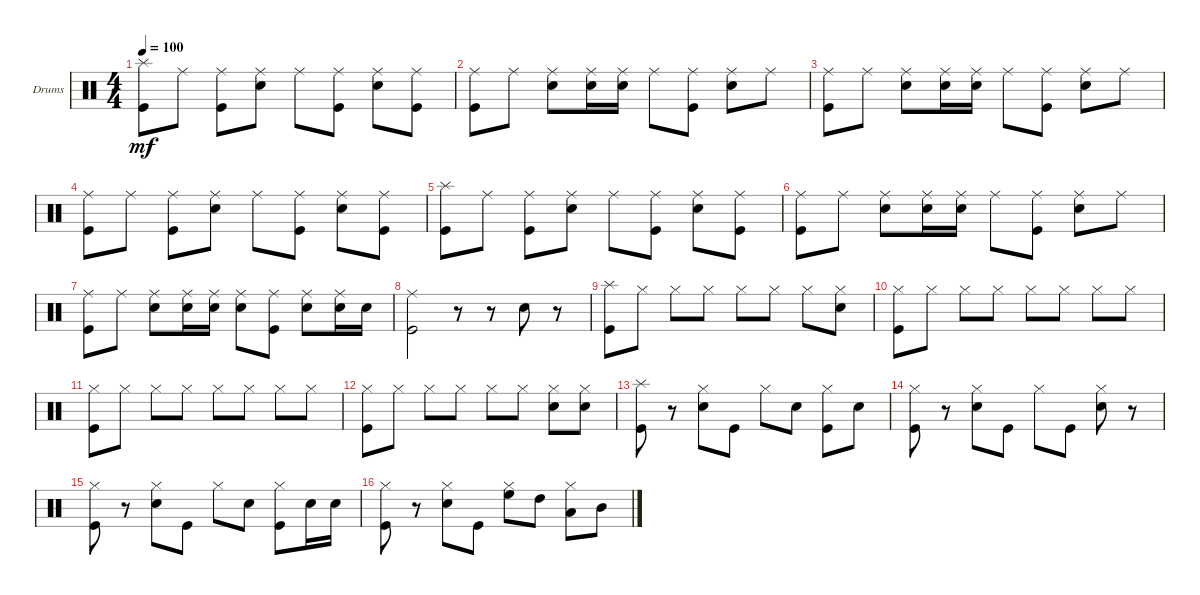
\defaultSystemsLayout 4
\bracketExtendMode groupsimilarinstruments
\firstSystemTrackNameOrientation horizontal
\otherSystemsTrackNameOrientation horizontal
\track ("Drumkit" "Drums") {instrument percussion}
\staff {score}
\articulation defaults
\ts (4 4)
\tempo 100
\clef neutral
\ks c
("Kick (hit)" "Splash (hit)").8{dy mf} "Ride (middle)".8 ("Kick (hit)" "Ride (middle)").8 ("Snare (hit) 2" "Ride (middle)").8 "Ride (middle)".8 ("Kick (hit)" "Ride (middle)").8 ("Snare (hit) 2" "Ride (middle)").8 ("Kick (hit)" "Ride (middle)").8 |
("Kick (hit)" "Ride (middle)").8 "Ride (middle)".8 ("Snare (hit) 2" "Ride (middle)").8 ("Snare (hit) 2" "Ride (middle)").16 ("Snare (hit) 2" "Ride (middle)").16 "Ride (middle)".8 ("Kick (hit)" "Ride (middle)").8 ("Snare (hit) 2" "Ride (middle)").8 "Ride (middle)".8 |
("Kick (hit)" "Ride (middle)").8 "Ride (middle)".8 ("Snare (hit) 2" "Ride (middle)").8 ("Snare (hit) 2" "Ride (middle)").16 ("Snare (hit) 2" "Ride (middle)").16 "Ride (middle)".8 ("Kick (hit)" "Ride (middle)").8 ("Snare (hit) 2" "Ride (middle)").8 "Ride (middle)".8 |
("Kick (hit)" "Ride (middle)").8 "Ride (middle)".8 ("Kick (hit)" "Ride (middle)").8 ("Snare (hit) 2" "Ride (middle)").8 "Ride (middle)".8 ("Kick (hit)" "Ride (middle)").8 ("Snare (hit) 2" "Ride (middle)").8 ("Kick (hit)" "Ride (middle)").8 |
("Kick (hit)" "Splash (hit)").8 "Ride (middle)".8 ("Kick (hit)" "Ride (middle)").8 ("Snare (hit) 2" "Ride (middle)").8 "Ride (middle)".8 ("Kick (hit)" "Ride (middle)").8 ("Snare (hit) 2" "Ride (middle)").8 ("Kick (hit)" "Ride (middle)").8 |
("Kick (hit)" "Ride (middle)").8 "Ride (middle)".8 ("Snare (hit) 2" "Ride (middle)").8 ("Snare (hit) 2" "Ride (middle)").16 ("Snare (hit) 2" "Ride (middle)").16 "Ride (middle)".8 ("Kick (hit)" "Ride (middle)").8 ("Snare (hit) 2" "Ride (middle)").8 "Ride (middle)".8 |
("Kick (hit)" "Ride (middle)").8 "Ride (middle)".8 ("Snare (hit) 2" "Ride (middle)").8 ("Snare (hit) 2" "Ride (middle)").16 ("Snare (hit) 2" "Ride (middle)").16 ("Ride (middle)" "Snare (hit) 2").8 ("Kick (hit)" "Ride (middle)").8 ("Snare (hit) 2" "Ride (middle)").8 ("Ride (middle)" "Snare (hit) 2").16 "Snare (hit) 2".16 |
("Kick (hit)" "Ride (middle)").2 r.8 r.8 "Snare (hit) 2".8 r.8 |
("Kick (hit)" "Splash (hit)").8 "Hi-Hat (closed)".8 "Hi-Hat (closed)".8 "Hi-Hat (closed)".8 "Hi-Hat (closed)".8 "Hi-Hat (closed)".8 "Hi-Hat (closed)".8 ("Hi-Hat (closed)" "Snare (hit) 2").8 |
("Kick (hit)" "Hi-Hat (closed)").8 "Hi-Hat (closed)".8 "Hi-Hat (closed)".8 "Hi-Hat (closed)".8 "Hi-Hat (closed)".8 "Hi-Hat (closed)".8 "Hi-Hat (closed)".8 "Hi-Hat (closed)".8 |
("Kick (hit)" "Hi-Hat (closed)").8 "Hi-Hat (closed)".8 "Hi-Hat (closed)".8 "Hi-Hat (closed)".8 "Hi-Hat (closed)".8 "Hi-Hat (closed)".8 "Hi-Hat (closed)".8 "Hi-Hat (closed)".8 |
("Kick (hit)" "Hi-Hat (closed)").8 "Hi-Hat (closed)".8 "Hi-Hat (closed)".8 "Hi-Hat (closed)".8 "Hi-Hat (closed)".8 "Hi-Hat (closed)".8 ("Snare (hit) 2" "Hi-Hat (closed)").8 ("Hi-Hat (closed)" "Snare (hit) 2").8 |
("Kick (hit)" "Splash (hit)").8 r.8 ("Snare (hit) 2" "Hi-Hat (closed)").8 "Kick (hit)".8 "Hi-Hat (closed)".8 "Snare (hit) 2".8 ("Kick (hit)" "Hi-Hat (closed)").8 "Snare (hit) 2".8 |
("Kick (hit)" "Hi-Hat (closed)").8 r.8 ("Snare (hit) 2" "Hi-Hat (closed)").8 "Kick (hit)".8 "Hi-Hat (closed)".8 "Kick (hit)".8 ("Snare (hit) 2" "Hi-Hat (closed)").8 r.8 |
("Kick (hit)" "Hi-Hat (closed)").8 r.8 ("Snare (hit) 2" "Hi-Hat (closed)").8 "Kick (hit)".8 "Hi-Hat (closed)".8 "Snare (hit) 2".8 ("Kick (hit)" "Hi-Hat (closed)").8 "Snare (hit) 2".16 "Snare (hit) 2".16 |
("Kick (hit)" "Hi-Hat (closed)").8 r.8 ("Snare (hit) 2" "Hi-Hat (closed)").8 "Kick (hit)".8 ("Hi-Hat (closed)" "High Floor Tom (hit)").8 "High Tom (hit)".8 ("Hi-Hat (closed)" "Low Tom (hit)").8 "Mid Tom (hit)".8
